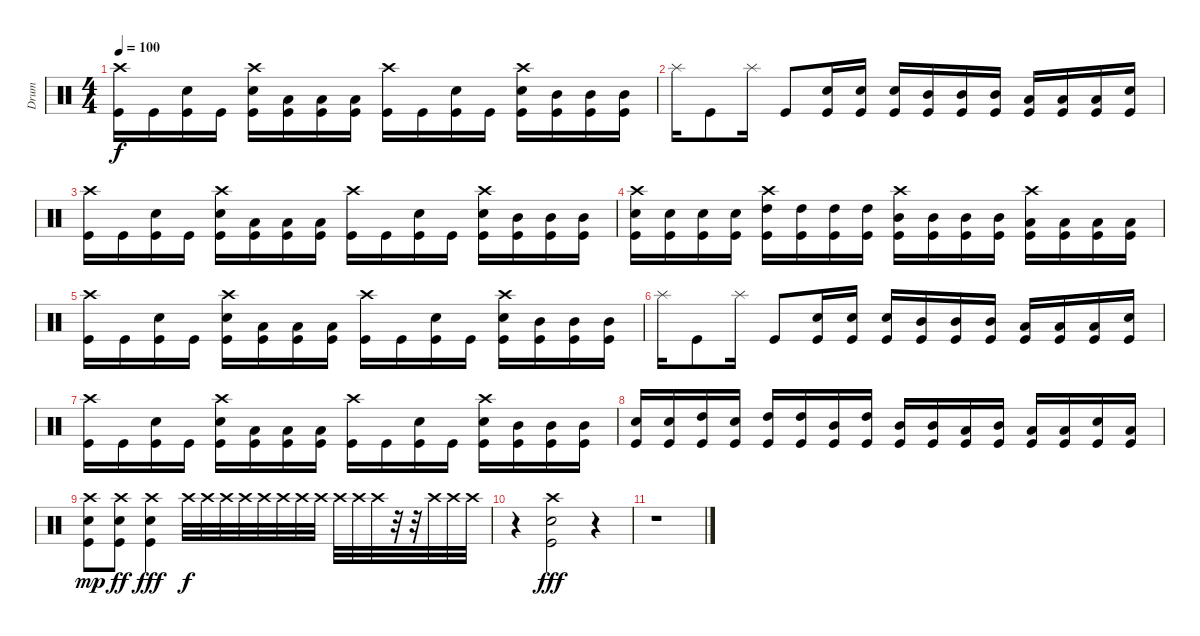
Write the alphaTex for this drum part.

\track ("Drum" "Drum") {instrument percussion}
\staff {score}
\articulation defaults
\ts (4 4)
\tempo 100
\clef neutral
\ks c
("Crash high (hit)" "Kick (hit)").16{dy f} "Kick (hit)".16 ("Snare (hit) 2" "Kick (hit)").16 "Kick (hit)".16 ("Crash high (hit)" "Snare (hit) 2" "Kick (hit)").16 ("Low Floor Tom (hit)" "Kick (hit)").16 ("Low Floor Tom (hit)" "Kick (hit)").16 ("Low Floor Tom (hit)" "Kick (hit)").16 ("Crash high (hit)" "Kick (hit)").16 "Kick (hit)".16 ("Snare (hit) 2" "Kick (hit)").16 "Kick (hit)".16 ("Crash high (hit)" "Snare (hit) 2" "Kick (hit)").16 ("Mid Tom (hit)" "Kick (hit)").16 ("Mid Tom (hit)" "Kick (hit)").16 ("Mid Tom (hit)" "Kick (hit)").16 |
"Splash (hit)".16 "Kick (hit)".8 "Splash (hit)".16 "Kick (hit)".8 ("Snare (hit) 2" "Kick (hit)").16 ("Snare (hit) 2" "Kick (hit)").16 ("Snare (hit) 2" "Kick (hit)").16 ("Mid Tom (hit)" "Kick (hit)").16 ("Mid Tom (hit)" "Kick (hit)").16 ("Mid Tom (hit)" "Kick (hit)").16 ("Low Floor Tom (hit)" "Kick (hit)").16 ("Low Floor Tom (hit)" "Kick (hit)").16 ("Low Floor Tom (hit)" "Kick (hit)").16 ("Snare (hit) 2" "Kick (hit)").16 |
("Crash high (hit)" "Kick (hit)").16 "Kick (hit)".16 ("Snare (hit) 2" "Kick (hit)").16 "Kick (hit)".16 ("Crash high (hit)" "Snare (hit) 2" "Kick (hit)").16 ("Low Floor Tom (hit)" "Kick (hit)").16 ("Low Floor Tom (hit)" "Kick (hit)").16 ("Low Floor Tom (hit)" "Kick (hit)").16 ("Crash high (hit)" "Kick (hit)").16 "Kick (hit)".16 ("Snare (hit) 2" "Kick (hit)").16 "Kick (hit)".16 ("Crash high (hit)" "Snare (hit) 2" "Kick (hit)").16 ("Mid Tom (hit)" "Kick (hit)").16 ("Mid Tom (hit)" "Kick (hit)").16 ("Mid Tom (hit)" "Kick (hit)").16 |
("Crash high (hit)" "Snare (hit) 2" "Kick (hit)").16 ("Snare (hit) 2" "Kick (hit)").16 ("Snare (hit) 2" "Kick (hit)").16 ("Snare (hit) 2" "Kick (hit)").16 ("Crash high (hit)" "High Tom (hit)" "Kick (hit)").16 ("High Tom (hit)" "Kick (hit)").16 ("High Tom (hit)" "Kick (hit)").16 ("High Tom (hit)" "Kick (hit)").16 ("Crash high (hit)" "Mid Tom (hit)" "Kick (hit)").16 ("Mid Tom (hit)" "Kick (hit)").16 ("Mid Tom (hit)" "Kick (hit)").16 ("Mid Tom (hit)" "Kick (hit)").16 ("Crash high (hit)" "Low Floor Tom (hit)" "Kick (hit)").16 ("Low Floor Tom (hit)" "Kick (hit)").16 ("Low Floor Tom (hit)" "Kick (hit)").16 ("Low Floor Tom (hit)" "Kick (hit)").16 |
("Crash high (hit)" "Kick (hit)").16 "Kick (hit)".16 ("Snare (hit) 2" "Kick (hit)").16 "Kick (hit)".16 ("Crash high (hit)" "Snare (hit) 2" "Kick (hit)").16 ("Low Floor Tom (hit)" "Kick (hit)").16 ("Low Floor Tom (hit)" "Kick (hit)").16 ("Low Floor Tom (hit)" "Kick (hit)").16 ("Crash high (hit)" "Kick (hit)").16 "Kick (hit)".16 ("Snare (hit) 2" "Kick (hit)").16 "Kick (hit)".16 ("Crash high (hit)" "Snare (hit) 2" "Kick (hit)").16 ("Mid Tom (hit)" "Kick (hit)").16 ("Mid Tom (hit)" "Kick (hit)").16 ("Mid Tom (hit)" "Kick (hit)").16 |
"Splash (hit)".16 "Kick (hit)".8 "Splash (hit)".16 "Kick (hit)".8 ("Snare (hit) 2" "Kick (hit)").16 ("Snare (hit) 2" "Kick (hit)").16 ("Snare (hit) 2" "Kick (hit)").16 ("Mid Tom (hit)" "Kick (hit)").16 ("Mid Tom (hit)" "Kick (hit)").16 ("Mid Tom (hit)" "Kick (hit)").16 ("Low Floor Tom (hit)" "Kick (hit)").16 ("Low Floor Tom (hit)" "Kick (hit)").16 ("Low Floor Tom (hit)" "Kick (hit)").16 ("Snare (hit) 2" "Kick (hit)").16 |
("Crash high (hit)" "Kick (hit)").16 "Kick (hit)".16 ("Snare (hit) 2" "Kick (hit)").16 "Kick (hit)".16 ("Crash high (hit)" "Snare (hit) 2" "Kick (hit)").16 ("Low Floor Tom (hit)" "Kick (hit)").16 ("Low Floor Tom (hit)" "Kick (hit)").16 ("Low Floor Tom (hit)" "Kick (hit)").16 ("Crash high (hit)" "Kick (hit)").16 "Kick (hit)".16 ("Snare (hit) 2" "Kick (hit)").16 "Kick (hit)".16 ("Crash high (hit)" "Snare (hit) 2" "Kick (hit)").16 ("Mid Tom (hit)" "Kick (hit)").16 ("Mid Tom (hit)" "Kick (hit)").16 ("Mid Tom (hit)" "Kick (hit)").16 |
("Snare (hit) 2" "Kick (hit)").16 ("Snare (hit) 2" "Kick (hit)").16 ("High Tom (hit)" "Kick (hit)").16 ("Snare (hit) 2" "Kick (hit)").16 ("High Tom (hit)" "Kick (hit)").16 ("High Tom (hit)" "Kick (hit)").16 ("Mid Tom (hit)" "Kick (hit)").16 ("High Tom (hit)" "Kick (hit)").16 ("Mid Tom (hit)" "Kick (hit)").16 ("Mid Tom (hit)" "Kick (hit)").16 ("Low Floor Tom (hit)" "Kick (hit)").16 ("Mid Tom (hit)" "Kick (hit)").16 ("Low Floor Tom (hit)" "Kick (hit)").16 ("Low Floor Tom (hit)" "Kick (hit)").16 ("Snare (hit) 2" "Kick (hit)").16 ("Low Floor Tom (hit)" "Kick (hit)").16 |
("Crash high (hit)" "Snare (hit) 2" "Kick (hit)").8{dy mp} ("Crash high (hit)" "Snare (hit) 2" "Kick (hit)").8{dy ff} ("Crash high (hit)" "Snare (hit) 2" "Kick (hit)").4{dy fff} "Crash high (hit)".32{dy f} "Crash high (hit)".32 "Crash high (hit)".32 "Crash high (hit)".32 "Crash high (hit)".32 "Crash high (hit)".32 "Crash high (hit)".32 "Crash high (hit)".32 "Crash high (hit)".32 "Crash high (hit)".32 "Crash high (hit)".32 r.32 r.32 "Crash high (hit)".32 "Crash high (hit)".32 "Crash high (hit)".32 |
r.4 ("Crash high (hit)" "Snare (hit) 2" "Kick (hit)").2{dy fff} r.4 |
r.1
